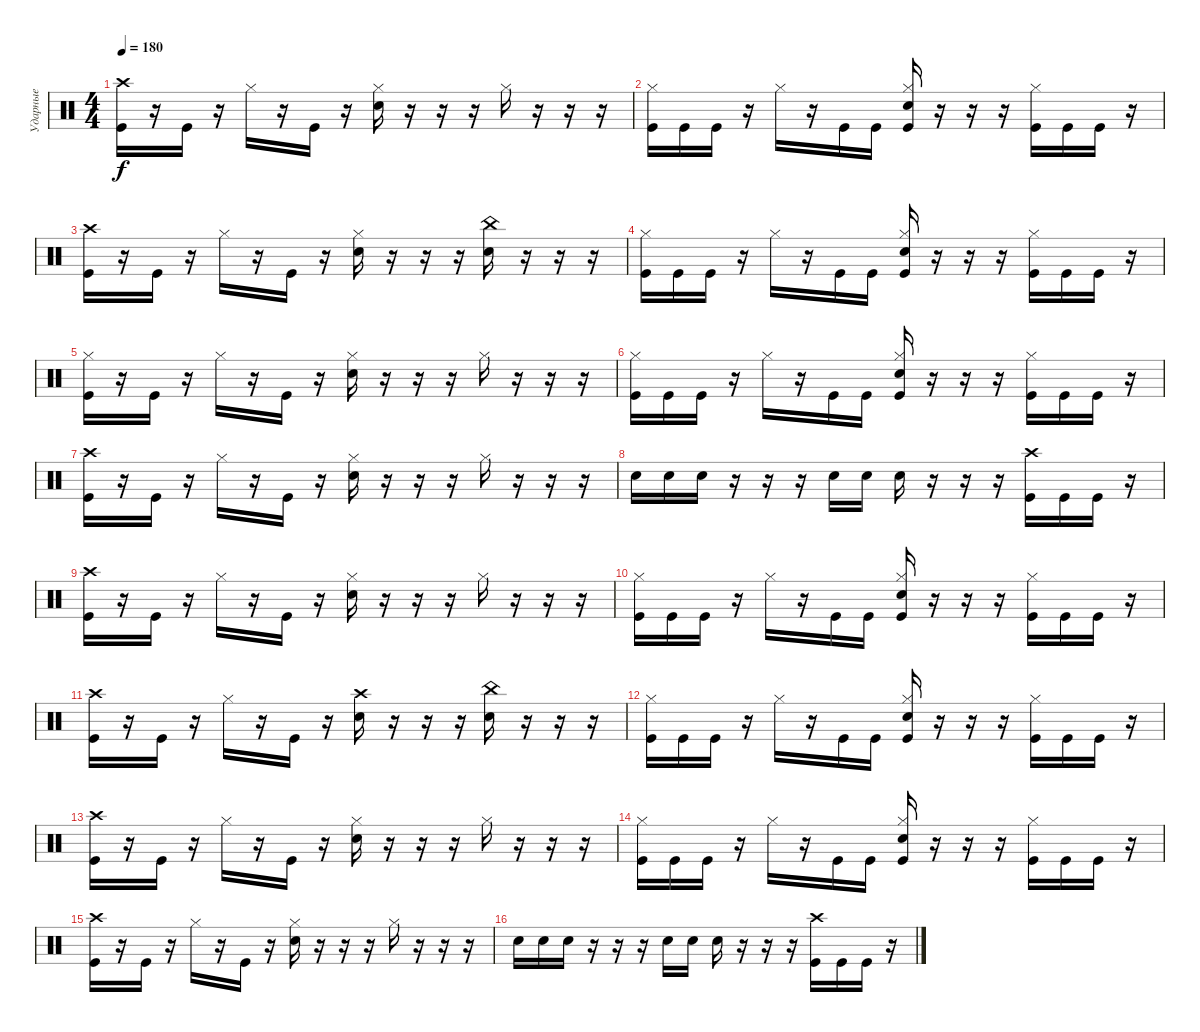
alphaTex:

\track ("Ударные" "Ударные") {instrument percussion}
\staff {score}
\articulation defaults
\ts (4 4)
\tempo 180
\clef neutral
\ks c
("Crash high (hit)" "Kick (hit)").16{dy f} r.16 "Kick (hit)".16 r.16 "Hi-Hat (closed)".16 r.16 "Kick (hit)".16 r.16 ("Hi-Hat (closed)" "Electric Snare (hit)").16 r.16 r.16 r.16 "Hi-Hat (closed)".16 r.16 r.16 r.16 |
("Hi-Hat (closed)" "Kick (hit)").16 "Kick (hit)".16 "Kick (hit)".16 r.16 "Hi-Hat (closed)".16 r.16 "Kick (hit)".16 "Kick (hit)".16 ("Hi-Hat (closed)" "Electric Snare (hit)" "Kick (hit)").16 r.16 r.16 r.16 ("Hi-Hat (closed)" "Kick (hit)").16 "Kick (hit)".16 "Kick (hit)".16 r.16 |
("Crash high (hit)" "Kick (hit)").16 r.16 "Kick (hit)".16 r.16 "Hi-Hat (closed)".16 r.16 "Kick (hit)".16 r.16 ("Hi-Hat (closed)" "Electric Snare (hit)").16 r.16 r.16 r.16 ("China (hit)" "Electric Snare (hit)").16 r.16 r.16 r.16 |
("Hi-Hat (closed)" "Kick (hit)").16 "Kick (hit)".16 "Kick (hit)".16 r.16 "Hi-Hat (closed)".16 r.16 "Kick (hit)".16 "Kick (hit)".16 ("Hi-Hat (closed)" "Electric Snare (hit)" "Kick (hit)").16 r.16 r.16 r.16 ("Hi-Hat (closed)" "Kick (hit)").16 "Kick (hit)".16 "Kick (hit)".16 r.16 |
("Hi-Hat (closed)" "Kick (hit)").16 r.16 "Kick (hit)".16 r.16 "Hi-Hat (closed)".16 r.16 "Kick (hit)".16 r.16 ("Hi-Hat (closed)" "Electric Snare (hit)").16 r.16 r.16 r.16 "Hi-Hat (closed)".16 r.16 r.16 r.16 |
("Hi-Hat (closed)" "Kick (hit)").16 "Kick (hit)".16 "Kick (hit)".16 r.16 "Hi-Hat (closed)".16 r.16 "Kick (hit)".16 "Kick (hit)".16 ("Hi-Hat (closed)" "Electric Snare (hit)" "Kick (hit)").16 r.16 r.16 r.16 ("Hi-Hat (closed)" "Kick (hit)").16 "Kick (hit)".16 "Kick (hit)".16 r.16 |
("Crash high (hit)" "Kick (hit)").16 r.16 "Kick (hit)".16 r.16 "Hi-Hat (closed)".16 r.16 "Kick (hit)".16 r.16 ("Hi-Hat (closed)" "Electric Snare (hit)").16 r.16 r.16 r.16 "Hi-Hat (closed)".16 r.16 r.16 r.16 |
"Electric Snare (hit)".16 "Electric Snare (hit)".16 "Electric Snare (hit)".16 r.16 r.16 r.16 "Electric Snare (hit)".16 "Electric Snare (hit)".16 "Electric Snare (hit)".16 r.16 r.16 r.16 ("Crash high (hit)" "Kick (hit)").16 "Kick (hit)".16 "Kick (hit)".16 r.16 |
("Crash high (hit)" "Kick (hit)").16 r.16 "Kick (hit)".16 r.16 "Hi-Hat (closed)".16 r.16 "Kick (hit)".16 r.16 ("Hi-Hat (closed)" "Electric Snare (hit)").16 r.16 r.16 r.16 "Hi-Hat (closed)".16 r.16 r.16 r.16 |
("Hi-Hat (closed)" "Kick (hit)").16 "Kick (hit)".16 "Kick (hit)".16 r.16 "Hi-Hat (closed)".16 r.16 "Kick (hit)".16 "Kick (hit)".16 ("Hi-Hat (closed)" "Electric Snare (hit)" "Kick (hit)").16 r.16 r.16 r.16 ("Hi-Hat (closed)" "Kick (hit)").16 "Kick (hit)".16 "Kick (hit)".16 r.16 |
("Crash high (hit)" "Kick (hit)").16 r.16 "Kick (hit)".16 r.16 "Hi-Hat (closed)".16 r.16 "Kick (hit)".16 r.16 ("Crash high (hit)" "Electric Snare (hit)").16 r.16 r.16 r.16 ("China (hit)" "Electric Snare (hit)").16 r.16 r.16 r.16 |
("Hi-Hat (closed)" "Kick (hit)").16 "Kick (hit)".16 "Kick (hit)".16 r.16 "Hi-Hat (closed)".16 r.16 "Kick (hit)".16 "Kick (hit)".16 ("Hi-Hat (closed)" "Electric Snare (hit)" "Kick (hit)").16 r.16 r.16 r.16 ("Hi-Hat (closed)" "Kick (hit)").16 "Kick (hit)".16 "Kick (hit)".16 r.16 |
("Crash high (hit)" "Kick (hit)").16 r.16 "Kick (hit)".16 r.16 "Hi-Hat (closed)".16 r.16 "Kick (hit)".16 r.16 ("Hi-Hat (closed)" "Electric Snare (hit)").16 r.16 r.16 r.16 "Hi-Hat (closed)".16 r.16 r.16 r.16 |
("Hi-Hat (closed)" "Kick (hit)").16 "Kick (hit)".16 "Kick (hit)".16 r.16 "Hi-Hat (closed)".16 r.16 "Kick (hit)".16 "Kick (hit)".16 ("Hi-Hat (closed)" "Electric Snare (hit)" "Kick (hit)").16 r.16 r.16 r.16 ("Hi-Hat (closed)" "Kick (hit)").16 "Kick (hit)".16 "Kick (hit)".16 r.16 |
("Crash high (hit)" "Kick (hit)").16 r.16 "Kick (hit)".16 r.16 "Hi-Hat (closed)".16 r.16 "Kick (hit)".16 r.16 ("Hi-Hat (closed)" "Electric Snare (hit)").16 r.16 r.16 r.16 "Hi-Hat (closed)".16 r.16 r.16 r.16 |
"Electric Snare (hit)".16 "Electric Snare (hit)".16 "Electric Snare (hit)".16 r.16 r.16 r.16 "Electric Snare (hit)".16 "Electric Snare (hit)".16 "Electric Snare (hit)".16 r.16 r.16 r.16 ("Crash high (hit)" "Kick (hit)").16 "Kick (hit)".16 "Kick (hit)".16 r.16
